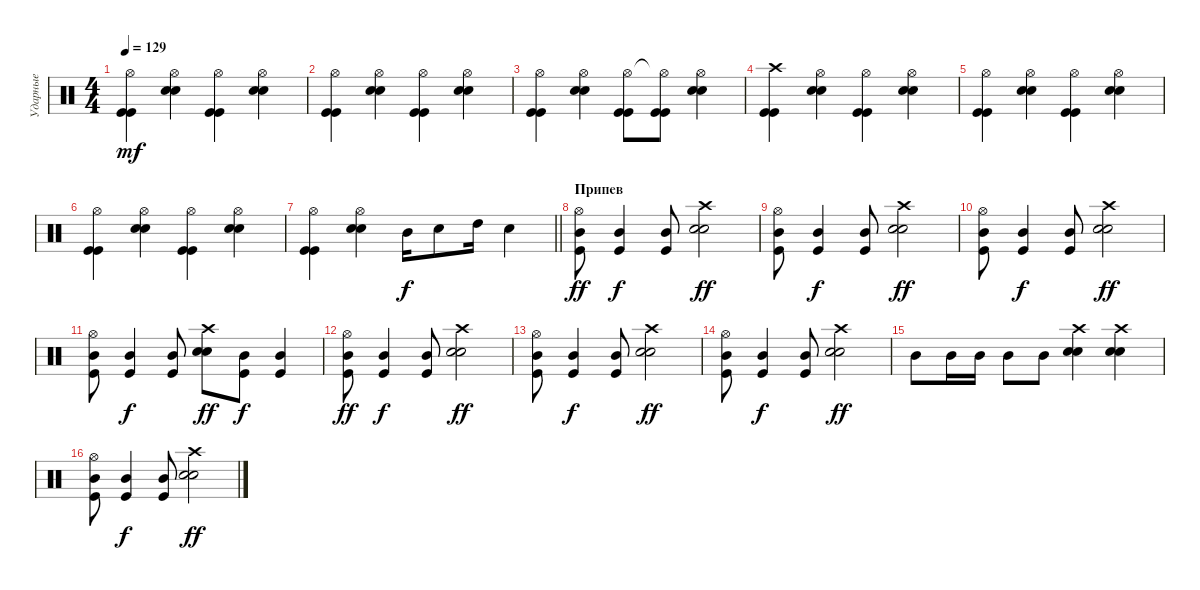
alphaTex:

\track ("Ударные" "Ударные") {instrument percussion}
\staff {score}
\articulation defaults
\ts (4 4)
\tempo 129
\clef neutral
\ks c
("Hi-Hat (open)" "Kick (hit)" "Kick (hit)").4{dy mf} ("Hi-Hat (open)" "Snare (hit) 2" "Snare (hit) 2").4 ("Hi-Hat (open)" "Kick (hit)" "Kick (hit)").4 ("Hi-Hat (open)" "Snare (hit) 2" "Snare (hit) 2").4 |
("Hi-Hat (open)" "Kick (hit)" "Kick (hit)").4 ("Hi-Hat (open)" "Snare (hit) 2" "Snare (hit) 2").4 ("Hi-Hat (open)" "Kick (hit)" "Kick (hit)").4 ("Hi-Hat (open)" "Snare (hit) 2" "Snare (hit) 2").4 |
("Hi-Hat (open)" "Kick (hit)" "Kick (hit)").4 ("Hi-Hat (open)" "Snare (hit) 2" "Snare (hit) 2").4 ("Hi-Hat (open)" "Kick (hit)" "Kick (hit)").8 ("Hi-Hat (open)"{t} "Kick (hit)" "Kick (hit)").8 ("Hi-Hat (open)" "Snare (hit) 2" "Snare (hit) 2").4 |
("Crash high (hit)" "Kick (hit)" "Kick (hit)").4 ("Hi-Hat (open)" "Snare (hit) 2" "Snare (hit) 2").4 ("Hi-Hat (open)" "Kick (hit)" "Kick (hit)").4 ("Hi-Hat (open)" "Snare (hit) 2" "Snare (hit) 2").4 |
("Hi-Hat (open)" "Kick (hit)" "Kick (hit)").4 ("Hi-Hat (open)" "Snare (hit) 2" "Snare (hit) 2").4 ("Hi-Hat (open)" "Kick (hit)" "Kick (hit)").4 ("Hi-Hat (open)" "Snare (hit) 2" "Snare (hit) 2").4 |
("Hi-Hat (open)" "Kick (hit)" "Kick (hit)").4 ("Hi-Hat (open)" "Snare (hit) 2" "Snare (hit) 2").4 ("Hi-Hat (open)" "Kick (hit)" "Kick (hit)").4 ("Hi-Hat (open)" "Snare (hit) 2" "Snare (hit) 2").4 |
\barLineRight lightlight
("Hi-Hat (open)" "Kick (hit)" "Kick (hit)").4 ("Hi-Hat (open)" "Snare (hit) 2" "Snare (hit) 2").4 "Mid Tom (hit)".16{dy f} "Snare (hit) 2".8 "High Tom (hit)".16 "Snare (hit) 2".4 |
\section ("" "Припев")
("Kick (hit)" "Mid Tom (hit)" "Hi-Hat (open)").8{dy ff} ("Kick (hit)" "Mid Tom (hit)").4{dy f} ("Kick (hit)" "Mid Tom (hit)").8 ("Snare (hit) 2" "Snare (hit) 2" "Crash high (hit)").2{dy ff} |
("Kick (hit)" "Mid Tom (hit)" "Hi-Hat (open)").8 ("Kick (hit)" "Mid Tom (hit)").4{dy f} ("Kick (hit)" "Mid Tom (hit)").8 ("Snare (hit) 2" "Snare (hit) 2" "Crash high (hit)").2{dy ff} |
("Kick (hit)" "Mid Tom (hit)" "Hi-Hat (open)").8 ("Kick (hit)" "Mid Tom (hit)").4{dy f} ("Kick (hit)" "Mid Tom (hit)").8 ("Snare (hit) 2" "Snare (hit) 2" "Crash high (hit)").2{dy ff} |
("Kick (hit)" "Mid Tom (hit)" "Hi-Hat (open)").8 ("Kick (hit)" "Mid Tom (hit)").4{dy f} ("Kick (hit)" "Mid Tom (hit)").8 ("Snare (hit) 2" "Snare (hit) 2" "Crash high (hit)").8{dy ff} ("Kick (hit)" "Mid Tom (hit)").8{dy f} ("Kick (hit)" "Mid Tom (hit)").4 |
("Kick (hit)" "Mid Tom (hit)" "Hi-Hat (open)").8{dy ff} ("Kick (hit)" "Mid Tom (hit)").4{dy f} ("Kick (hit)" "Mid Tom (hit)").8 ("Snare (hit) 2" "Snare (hit) 2" "Crash high (hit)").2{dy ff} |
("Kick (hit)" "Mid Tom (hit)" "Hi-Hat (open)").8 ("Kick (hit)" "Mid Tom (hit)").4{dy f} ("Kick (hit)" "Mid Tom (hit)").8 ("Snare (hit) 2" "Snare (hit) 2" "Crash high (hit)").2{dy ff} |
("Kick (hit)" "Mid Tom (hit)" "Hi-Hat (open)").8 ("Kick (hit)" "Mid Tom (hit)").4{dy f} ("Kick (hit)" "Mid Tom (hit)").8 ("Snare (hit) 2" "Snare (hit) 2" "Crash high (hit)").2{dy ff} |
"Mid Tom (hit)".8 "Mid Tom (hit)".16 "Mid Tom (hit)".16 "Mid Tom (hit)".8 "Mid Tom (hit)".8 ("Snare (hit) 2" "Snare (hit) 2" "Crash high (hit)").4 ("Snare (hit) 2" "Snare (hit) 2" "Crash high (hit)").4 |
("Kick (hit)" "Mid Tom (hit)" "Hi-Hat (open)").8 ("Kick (hit)" "Mid Tom (hit)").4{dy f} ("Kick (hit)" "Mid Tom (hit)").8 ("Snare (hit) 2" "Snare (hit) 2" "Crash high (hit)").2{dy ff}
